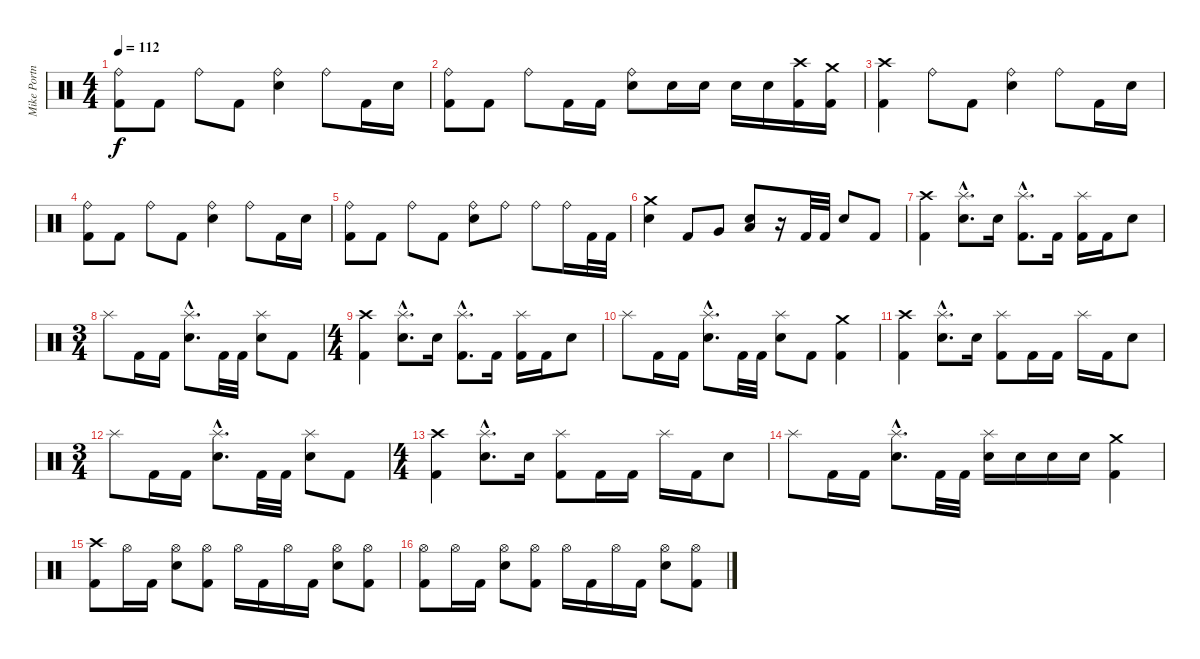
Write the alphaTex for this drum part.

\track ("Mike Portnoy" "Mike Portn") {instrument percussion}
\staff {score}
\articulation defaults
\ts (4 4)
\tempo 112
\clef neutral
\ks c
("Kick (hit) 2" "Ride (bell)").8{dy f} "Kick (hit) 2".8 "Ride (bell)".8 "Kick (hit) 2".8 ("Electric Snare (hit)" "Ride (bell)").4 "Ride (bell)".8 "Kick (hit) 2".16 "Electric Snare (hit)".16 |
("Kick (hit) 2" "Ride (bell)").8 "Kick (hit) 2".8 "Ride (bell)".8 "Kick (hit) 2".16 "Kick (hit) 2".16 ("Electric Snare (hit)" "Ride (bell)").8 "Electric Snare (hit)".16 "Electric Snare (hit)".16 "Electric Snare (hit)".16 "Electric Snare (hit)".16 ("Kick (hit) 2" "Crash high (hit)").16 ("Kick (hit) 2" "Crash medium (hit)").16 |
("Kick (hit) 2" "Crash high (hit)").4 "Ride (bell)".8 "Kick (hit) 2".8 ("Electric Snare (hit)" "Ride (bell)").4 "Ride (bell)".8 "Kick (hit) 2".16 "Electric Snare (hit)".16 |
("Kick (hit) 2" "Ride (bell)").8 "Kick (hit) 2".8 "Ride (bell)".8 "Kick (hit) 2".8 ("Electric Snare (hit)" "Ride (bell)").4 "Ride (bell)".8 "Kick (hit) 2".16 "Electric Snare (hit)".16 |
("Kick (hit) 2" "Ride (bell)").8 "Kick (hit) 2".8 "Ride (bell)".8 "Kick (hit) 2".8 ("Electric Snare (hit)" "Ride (bell)").8 "Ride (bell)".8 "Ride (bell)".8 "Ride (bell)".16 "Kick (hit) 2".32 "Kick (hit) 2".32 |
("Electric Snare (hit)" "Crash medium (hit)").4 "Kick (hit) 2".8 "Very Low Tom (hit)".8 ("Electric Snare (hit)" "Low Tom (hit)").8 r.16 "Kick (hit) 2".32 "Kick (hit) 2".32 "Electric Snare (hit)".8 "Kick (hit) 2".8 |
("Kick (hit) 2" "Crash high (hit)").4 ("Electric Snare (hit)"{hac} "Splash (hit)"{hac}).8{d} "Electric Snare (hit)".16 ("Kick (hit) 2"{hac} "Splash (hit)"{hac}).8{d} "Kick (hit) 2".16 ("Kick (hit) 2" "Splash (hit)").16 "Kick (hit) 2".16 "Electric Snare (hit)".8 |
\ts (3 4)
"Splash (hit)".8 "Kick (hit) 2".16 "Kick (hit) 2".16 ("Electric Snare (hit)"{hac} "Splash (hit)"{hac}).8{d} "Kick (hit) 2".32 "Kick (hit) 2".32 ("Electric Snare (hit)" "Splash (hit)").8 "Kick (hit) 2".8 |
\ts (4 4)
("Kick (hit) 2" "Crash high (hit)").4 ("Electric Snare (hit)"{hac} "Splash (hit)"{hac}).8{d} "Electric Snare (hit)".16 ("Kick (hit) 2"{hac} "Splash (hit)"{hac}).8{d} "Kick (hit) 2".16 ("Kick (hit) 2" "Splash (hit)").16 "Kick (hit) 2".16 "Electric Snare (hit)".8 |
"Splash (hit)".8 "Kick (hit) 2".16 "Kick (hit) 2".16 ("Electric Snare (hit)"{hac} "Splash (hit)"{hac}).8{d} "Kick (hit) 2".32 "Kick (hit) 2".32 ("Electric Snare (hit)" "Splash (hit)").8 "Kick (hit) 2".8 ("Kick (hit) 2" "Crash medium (hit)").4 |
("Kick (hit) 2" "Crash high (hit)").4 ("Electric Snare (hit)"{hac} "Splash (hit)"{hac}).8{d} "Electric Snare (hit)".16 ("Kick (hit) 2" "Splash (hit)").8 "Kick (hit) 2".16 "Kick (hit) 2".16 "Splash (hit)".16 "Kick (hit) 2".16 "Electric Snare (hit)".8 |
\ts (3 4)
"Splash (hit)".8 "Kick (hit) 2".16 "Kick (hit) 2".16 ("Electric Snare (hit)"{hac} "Splash (hit)"{hac}).8{d} "Kick (hit) 2".32 "Kick (hit) 2".32 ("Electric Snare (hit)" "Splash (hit)").8 "Kick (hit) 2".8 |
\ts (4 4)
("Kick (hit) 2" "Crash high (hit)").4 ("Electric Snare (hit)"{hac} "Splash (hit)"{hac}).8{d} "Electric Snare (hit)".16 ("Kick (hit) 2" "Splash (hit)").8 "Kick (hit) 2".16 "Kick (hit) 2".16 "Splash (hit)".16 "Kick (hit) 2".16 "Electric Snare (hit)".8 |
"Splash (hit)".8 "Kick (hit) 2".16 "Kick (hit) 2".16 ("Electric Snare (hit)"{hac} "Splash (hit)"{hac}).8{d} "Kick (hit) 2".32 "Kick (hit) 2".32 ("Electric Snare (hit)" "Splash (hit)").16 "Electric Snare (hit)".16 "Electric Snare (hit)".16 "Electric Snare (hit)".16 ("Kick (hit) 2" "Crash medium (hit)").4 |
("Kick (hit) 2" "Crash high (hit)").8 "Hi-Hat (open)".16 "Kick (hit) 2".16 ("Electric Snare (hit)" "Hi-Hat (open)").8 ("Kick (hit) 2" "Hi-Hat (open)").8 "Hi-Hat (open)".16 "Kick (hit) 2".16 "Hi-Hat (open)".16 "Kick (hit) 2".16 ("Electric Snare (hit)" "Hi-Hat (open)").8 ("Kick (hit) 2" "Hi-Hat (open)").8 |
("Kick (hit) 2" "Hi-Hat (open)").8 "Hi-Hat (open)".16 "Kick (hit) 2".16 ("Electric Snare (hit)" "Hi-Hat (open)").8 ("Kick (hit) 2" "Hi-Hat (open)").8 "Hi-Hat (open)".16 "Kick (hit) 2".16 "Hi-Hat (open)".16 "Kick (hit) 2".16 ("Electric Snare (hit)" "Hi-Hat (open)").8 ("Kick (hit) 2" "Hi-Hat (open)").8
